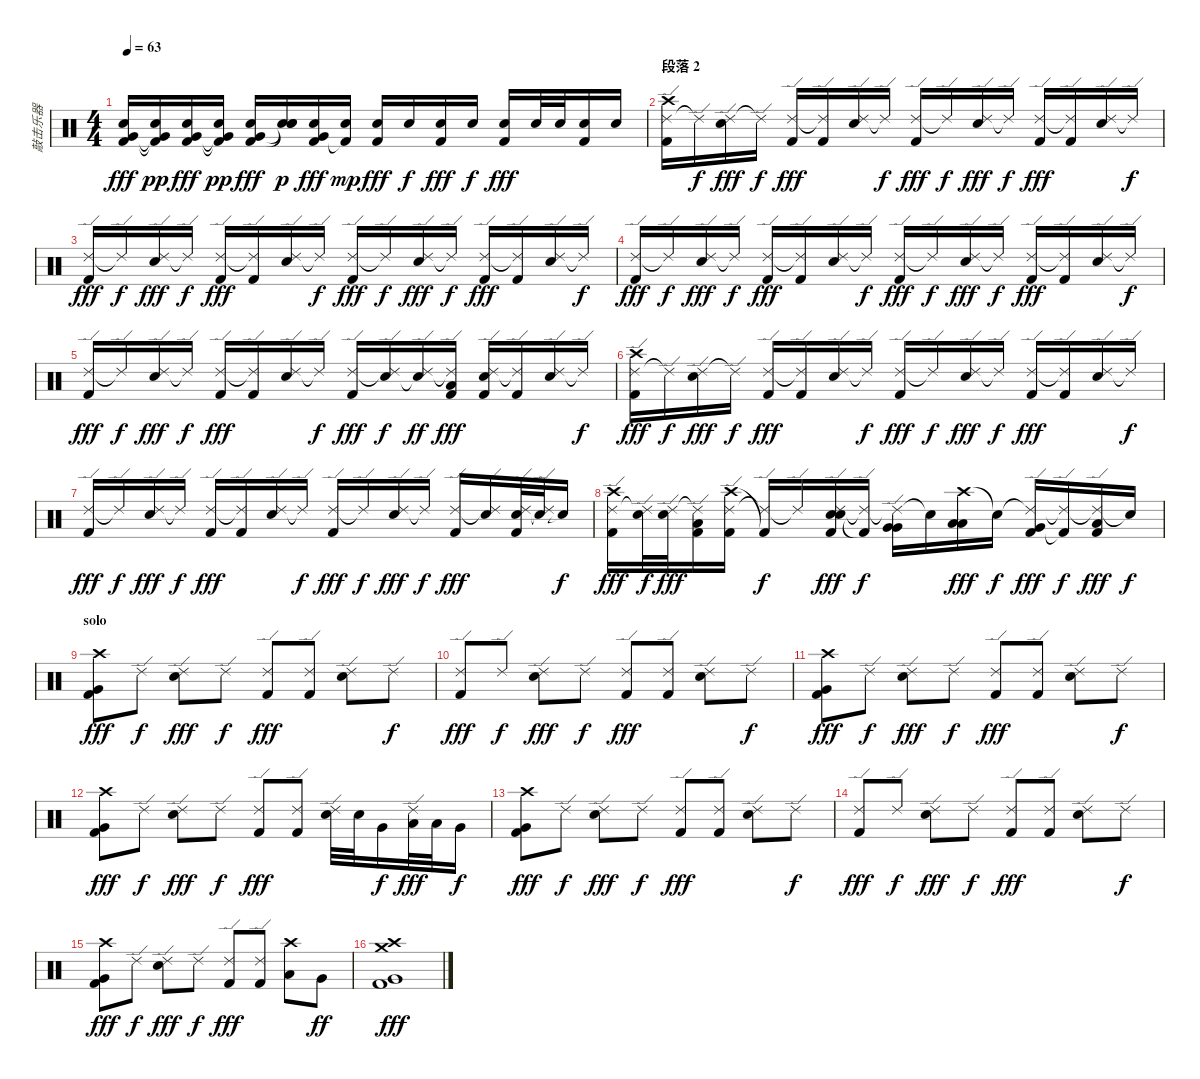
\track ("敲击乐器" "敲击乐器") {instrument percussion}
\staff {score}
\articulation defaults
\ts (4 4)
\tempo 63
\clef neutral
\ks c
("Snare (hit) 2" "Very Low Tom (hit)" "Kick (hit) 2").16{dy fff} ("Snare (hit) 2" "Very Low Tom (hit)"{t} "Kick (hit) 2"{t}).16{dy pp} ("Snare (hit) 2" "Very Low Tom (hit)" "Kick (hit) 2").16{dy fff} ("Snare (hit) 2" "Very Low Tom (hit)"{t} "Kick (hit) 2"{t}).16{dy pp} ("Snare (hit) 2" "Very Low Tom (hit)" "Kick (hit) 2").16{dy fff} ("Snare (hit) 2" "Snare (hit)"{t} "Snare (hit)"{t}).16{dy p} ("Snare (hit) 2" "Very Low Tom (hit)" "Kick (hit) 2").16{dy fff} ("Snare (hit) 2" "Kick (hit) 2"{t}).16{dy mp} ("Snare (hit) 2" "Kick (hit) 2").16{dy fff} "Snare (hit) 2".16{dy f} ("Snare (hit) 2" "Kick (hit) 2").16{dy fff} "Snare (hit) 2".16{dy f} ("Snare (hit) 2" "Kick (hit) 2").16{dy fff} "Electric Snare (hit)".32 "Electric Snare (hit)".32 ("Snare (hit) 2" "Kick (hit) 2").16 "Snare (hit) 2".16 |
\section ("" "段落 2")
("Ride (edge) 2" "Crash high (hit)" "Kick (hit) 2").16 "Ride (edge) 2"{t}.16{dy f} ("Ride (edge) 2" "Snare (hit) 2").16{dy fff} "Ride (edge) 2"{t}.16{dy f} ("Ride (edge) 2" "Kick (hit) 2").16{dy fff} ("Ride (edge) 2"{t} "Kick (hit) 2").16 ("Ride (edge) 2" "Snare (hit) 2").16 "Ride (edge) 2"{t}.16{dy f} ("Ride (edge) 2" "Kick (hit) 2").16{dy fff} "Ride (edge) 2"{t}.16{dy f} ("Ride (edge) 2" "Snare (hit) 2").16{dy fff} "Ride (edge) 2"{t}.16{dy f} ("Ride (edge) 2" "Kick (hit) 2").16{dy fff} ("Ride (edge) 2"{t} "Kick (hit) 2").16 ("Ride (edge) 2" "Snare (hit) 2").16 "Ride (edge) 2"{t}.16{dy f} |
("Ride (edge) 2" "Kick (hit) 2").16{dy fff} "Ride (edge) 2"{t}.16{dy f} ("Ride (edge) 2" "Snare (hit) 2").16{dy fff} "Ride (edge) 2"{t}.16{dy f} ("Ride (edge) 2" "Kick (hit) 2").16{dy fff} ("Ride (edge) 2"{t} "Kick (hit) 2").16 ("Ride (edge) 2" "Snare (hit) 2").16 "Ride (edge) 2"{t}.16{dy f} ("Ride (edge) 2" "Kick (hit) 2").16{dy fff} "Ride (edge) 2"{t}.16{dy f} ("Ride (edge) 2" "Snare (hit) 2").16{dy fff} "Ride (edge) 2"{t}.16{dy f} ("Ride (edge) 2" "Kick (hit) 2").16{dy fff} ("Ride (edge) 2"{t} "Kick (hit) 2").16 ("Ride (edge) 2" "Snare (hit) 2").16 "Ride (edge) 2"{t}.16{dy f} |
("Ride (edge) 2" "Kick (hit) 2").16{dy fff} "Ride (edge) 2"{t}.16{dy f} ("Ride (edge) 2" "Snare (hit) 2").16{dy fff} "Ride (edge) 2"{t}.16{dy f} ("Ride (edge) 2" "Kick (hit) 2").16{dy fff} ("Ride (edge) 2"{t} "Kick (hit) 2").16 ("Ride (edge) 2" "Snare (hit) 2").16 "Ride (edge) 2"{t}.16{dy f} ("Ride (edge) 2" "Kick (hit) 2").16{dy fff} "Ride (edge) 2"{t}.16{dy f} ("Ride (edge) 2" "Snare (hit) 2").16{dy fff} "Ride (edge) 2"{t}.16{dy f} ("Ride (edge) 2" "Kick (hit) 2").16{dy fff} ("Ride (edge) 2"{t} "Kick (hit) 2").16 ("Ride (edge) 2" "Snare (hit) 2").16 "Ride (edge) 2"{t}.16{dy f} |
("Ride (edge) 2" "Kick (hit) 2").16{dy fff} "Ride (edge) 2"{t}.16{dy f} ("Ride (edge) 2" "Snare (hit) 2").16{dy fff} "Ride (edge) 2"{t}.16{dy f} ("Ride (edge) 2" "Kick (hit) 2").16{dy fff} ("Ride (edge) 2"{t} "Kick (hit) 2").16 ("Ride (edge) 2" "Snare (hit) 2").16 "Ride (edge) 2"{t}.16{dy f} ("Ride (edge) 2" "Kick (hit) 2").16{dy fff} ("Ride (edge) 2"{t} "Snare (hit) 2").16{dy f} ("Ride (edge) 2" "Snare (hit) 2"{t}).16{dy ff} ("Ride (edge) 2"{t} "Low Tom (hit)" "Kick (hit) 2").16{dy fff} ("Ride (edge) 2" "Snare (hit) 2" "Kick (hit) 2").16 ("Ride (edge) 2"{t} "Kick (hit) 2").16 ("Ride (edge) 2" "Snare (hit) 2").16 "Ride (edge) 2"{t}.16{dy f} |
("Ride (edge) 2" "Crash high (hit)" "Kick (hit) 2").16{dy fff} "Ride (edge) 2"{t}.16{dy f} ("Ride (edge) 2" "Snare (hit) 2").16{dy fff} "Ride (edge) 2"{t}.16{dy f} ("Ride (edge) 2" "Kick (hit) 2").16{dy fff} ("Ride (edge) 2"{t} "Kick (hit) 2").16 ("Ride (edge) 2" "Snare (hit) 2").16 "Ride (edge) 2"{t}.16{dy f} ("Ride (edge) 2" "Kick (hit) 2").16{dy fff} "Ride (edge) 2"{t}.16{dy f} ("Ride (edge) 2" "Snare (hit) 2").16{dy fff} "Ride (edge) 2"{t}.16{dy f} ("Ride (edge) 2" "Kick (hit) 2").16{dy fff} ("Ride (edge) 2"{t} "Kick (hit) 2").16 ("Ride (edge) 2" "Snare (hit) 2").16 "Ride (edge) 2"{t}.16{dy f} |
("Ride (edge) 2" "Kick (hit) 2").16{dy fff} "Ride (edge) 2"{t}.16{dy f} ("Ride (edge) 2" "Snare (hit) 2").16{dy fff} "Ride (edge) 2"{t}.16{dy f} ("Ride (edge) 2" "Kick (hit) 2").16{dy fff} ("Ride (edge) 2"{t} "Kick (hit) 2").16 ("Ride (edge) 2" "Snare (hit) 2").16 "Ride (edge) 2"{t}.16{dy f} ("Ride (edge) 2" "Kick (hit) 2").16{dy fff} "Ride (edge) 2"{t}.16{dy f} ("Ride (edge) 2" "Snare (hit) 2").16{dy fff} "Ride (edge) 2"{t}.16{dy f} ("Ride (edge) 2" "Kick (hit) 2").16{dy fff} ("Ride (edge) 2"{t} "Snare (hit) 2").16 ("Ride (edge) 2" "Snare (hit) 2" "Kick (hit) 2").32 ("Ride (edge) 2"{t} "Snare (hit) 2").32 "Snare (hit)"{t}.16{dy f} |
("Ride (edge) 2" "Crash high (hit)" "Kick (hit) 2").16{dy fff} ("Ride (edge) 2"{t} "Snare (hit) 2").32{dy f} ("Ride (edge) 2" "Snare (hit) 2").32{dy fff} ("Ride (edge) 2"{t} "Low Tom (hit)" "Kick (hit) 2").16 ("Ride (edge) 2" "Crash high (hit)" "Kick (hit) 2").16 ("Ride (edge) 2"{t} "Kick (hit) 2"{t}).16{dy f} "Ride (edge) 2"{t}.16 ("Ride (edge) 2" "Electric Snare (hit)" "Snare (hit) 2" "Kick (hit) 2").16{dy fff} ("Ride (edge) 2"{t} "Kick (hit) 2"{t}).16{dy f} ("Ride (edge) 2"{t} "Very Low Tom (hit)" "Very Low Tom (hit)").16 "Snare (hit) 2"{t}.16 ("Crash high (hit)" "Low Tom (hit)" "Low Tom (hit)").16{dy fff} "Snare (hit)"{t}.16{dy f} ("Ride (edge) 2"{t} "Very Low Tom (hit)" "Kick (hit) 2").16{dy fff} ("Ride (edge) 2"{t} "Kick (hit) 2"{t}).16{dy f} ("Ride (edge) 2"{t} "Low Tom (hit)" "Kick (hit) 2").16{dy fff} "Snare (hit)"{t}.16{dy f} |
\section ("" "solo")
("Crash high (hit)" "Very Low Tom (hit)" "Kick (hit) 2").8{dy fff} "Ride (edge) 2".8{dy f} ("Ride (edge) 2" "Snare (hit) 2").8{dy fff} "Ride (edge) 2".8{dy f} ("Ride (edge) 2" "Kick (hit) 2").8{dy fff} ("Ride (edge) 2" "Kick (hit) 2").8 ("Ride (edge) 2" "Snare (hit) 2").8 "Ride (edge) 2".8{dy f} |
("Ride (edge) 2" "Kick (hit) 2").8{dy fff} "Ride (edge) 2".8{dy f} ("Ride (edge) 2" "Snare (hit) 2").8{dy fff} "Ride (edge) 2".8{dy f} ("Ride (edge) 2" "Kick (hit) 2").8{dy fff} ("Ride (edge) 2" "Kick (hit) 2").8 ("Ride (edge) 2" "Snare (hit) 2").8 "Ride (edge) 2".8{dy f} |
("Crash high (hit)" "Very Low Tom (hit)" "Kick (hit) 2").8{dy fff} "Ride (edge) 2".8{dy f} ("Ride (edge) 2" "Snare (hit) 2").8{dy fff} "Ride (edge) 2".8{dy f} ("Ride (edge) 2" "Kick (hit) 2").8{dy fff} ("Ride (edge) 2" "Kick (hit) 2").8 ("Ride (edge) 2" "Snare (hit) 2").8 "Ride (edge) 2".8{dy f} |
("Crash high (hit)" "Very Low Tom (hit)" "Kick (hit) 2").8{dy fff} "Ride (edge) 2".8{dy f} ("Ride (edge) 2" "Snare (hit) 2").8{dy fff} "Ride (edge) 2".8{dy f} ("Ride (edge) 2" "Kick (hit) 2").8{dy fff} ("Ride (edge) 2" "Kick (hit) 2").8 ("Ride (edge) 2" "Snare (hit) 2").32 "Snare (hit) 2".32 "Very Low Tom (hit)".16{dy f} ("Ride (edge) 2" "Low Tom (hit)").32{dy fff} "Low Tom (hit)".32 "Very Low Tom (hit)".16{dy f} |
("Crash high (hit)" "Very Low Tom (hit)" "Kick (hit) 2").8{dy fff} "Ride (edge) 2".8{dy f} ("Ride (edge) 2" "Snare (hit) 2").8{dy fff} "Ride (edge) 2".8{dy f} ("Ride (edge) 2" "Kick (hit) 2").8{dy fff} ("Ride (edge) 2" "Kick (hit) 2").8 ("Ride (edge) 2" "Snare (hit) 2").8 "Ride (edge) 2".8{dy f} |
("Ride (edge) 2" "Kick (hit) 2").8{dy fff} "Ride (edge) 2".8{dy f} ("Ride (edge) 2" "Snare (hit) 2").8{dy fff} "Ride (edge) 2".8{dy f} ("Ride (edge) 2" "Kick (hit) 2").8{dy fff} ("Ride (edge) 2" "Kick (hit) 2").8 ("Ride (edge) 2" "Snare (hit) 2").8 "Ride (edge) 2".8{dy f} |
("Crash high (hit)" "Very Low Tom (hit)" "Kick (hit) 2").8{dy fff} "Ride (edge) 2".8{dy f} ("Ride (edge) 2" "Snare (hit) 2").8{dy fff} "Ride (edge) 2".8{dy f} ("Ride (edge) 2" "Kick (hit) 2").8{dy fff} ("Ride (edge) 2" "Kick (hit) 2").8 ("Crash high (hit)" "Low Tom (hit)").8 "Very Low Tom (hit)".8{dy ff} |
("Crash high (hit)" "Crash medium (hit)" "Very Low Tom (hit)" "Kick (hit) 2").1{dy fff}
